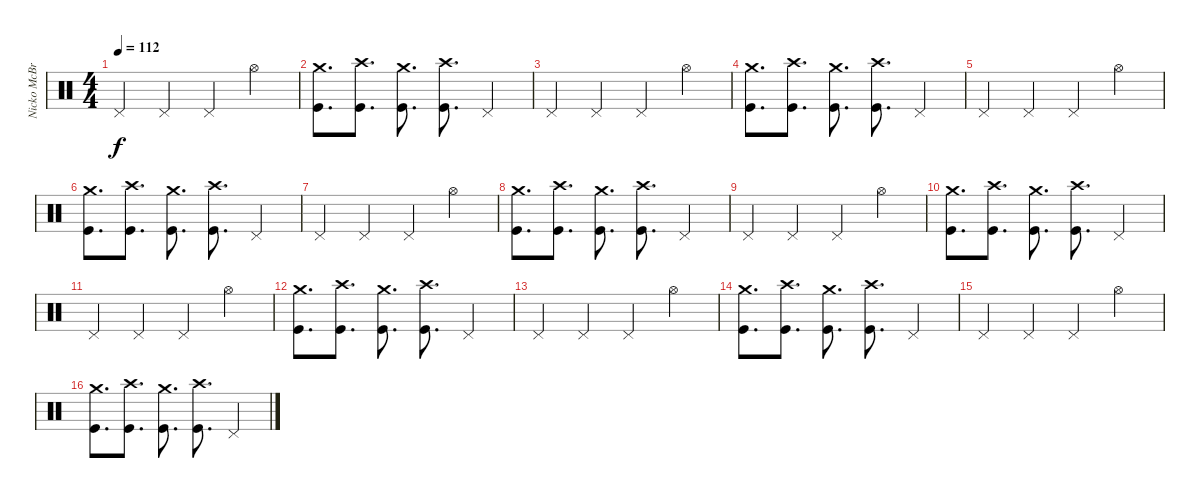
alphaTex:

\track ("Nicko McBrain" "Nicko McBr") {instrument percussion}
\staff {score}
\articulation defaults
\ts (4 4)
\tempo 112
\clef neutral
\ks c "Pedal Hi-Hat (hit)".4{dy f} "Pedal Hi-Hat (hit)".4 "Pedal Hi-Hat (hit)".4 "Hi-Hat (open)".4
|
("Crash medium (hit)" "Kick (hit)").8{d} ("Crash high (hit)" "Kick (hit)").8{d} ("Crash medium (hit)" "Kick (hit)").8{d} ("Crash high (hit)" "Kick (hit)").8{d} "Pedal Hi-Hat (hit)".4 |
"Pedal Hi-Hat (hit)".4 "Pedal Hi-Hat (hit)".4 "Pedal Hi-Hat (hit)".4 "Hi-Hat (open)".4 |
("Crash medium (hit)" "Kick (hit)").8{d} ("Crash high (hit)" "Kick (hit)").8{d} ("Crash medium (hit)" "Kick (hit)").8{d} ("Crash high (hit)" "Kick (hit)").8{d} "Pedal Hi-Hat (hit)".4 |
"Pedal Hi-Hat (hit)".4 "Pedal Hi-Hat (hit)".4 "Pedal Hi-Hat (hit)".4 "Hi-Hat (open)".4 |
("Crash medium (hit)" "Kick (hit)").8{d} ("Crash high (hit)" "Kick (hit)").8{d} ("Crash medium (hit)" "Kick (hit)").8{d} ("Crash high (hit)" "Kick (hit)").8{d} "Pedal Hi-Hat (hit)".4 |
"Pedal Hi-Hat (hit)".4 "Pedal Hi-Hat (hit)".4 "Pedal Hi-Hat (hit)".4 "Hi-Hat (open)".4 |
("Crash medium (hit)" "Kick (hit)").8{d} ("Crash high (hit)" "Kick (hit)").8{d} ("Crash medium (hit)" "Kick (hit)").8{d} ("Crash high (hit)" "Kick (hit)").8{d} "Pedal Hi-Hat (hit)".4 |
"Pedal Hi-Hat (hit)".4 "Pedal Hi-Hat (hit)".4 "Pedal Hi-Hat (hit)".4 "Hi-Hat (open)".4 |
("Crash medium (hit)" "Kick (hit)").8{d} ("Crash high (hit)" "Kick (hit)").8{d} ("Crash medium (hit)" "Kick (hit)").8{d} ("Crash high (hit)" "Kick (hit)").8{d} "Pedal Hi-Hat (hit)".4 |
"Pedal Hi-Hat (hit)".4 "Pedal Hi-Hat (hit)".4 "Pedal Hi-Hat (hit)".4 "Hi-Hat (open)".4 |
("Crash medium (hit)" "Kick (hit)").8{d} ("Crash high (hit)" "Kick (hit)").8{d} ("Crash medium (hit)" "Kick (hit)").8{d} ("Crash high (hit)" "Kick (hit)").8{d} "Pedal Hi-Hat (hit)".4 |
"Pedal Hi-Hat (hit)".4 "Pedal Hi-Hat (hit)".4 "Pedal Hi-Hat (hit)".4 "Hi-Hat (open)".4 |
("Crash medium (hit)" "Kick (hit)").8{d} ("Crash high (hit)" "Kick (hit)").8{d} ("Crash medium (hit)" "Kick (hit)").8{d} ("Crash high (hit)" "Kick (hit)").8{d} "Pedal Hi-Hat (hit)".4 |
"Pedal Hi-Hat (hit)".4 "Pedal Hi-Hat (hit)".4 "Pedal Hi-Hat (hit)".4 "Hi-Hat (open)".4 |
("Crash medium (hit)" "Kick (hit)").8{d} ("Crash high (hit)" "Kick (hit)").8{d} ("Crash medium (hit)" "Kick (hit)").8{d} ("Crash high (hit)" "Kick (hit)").8{d} "Pedal Hi-Hat (hit)".4
